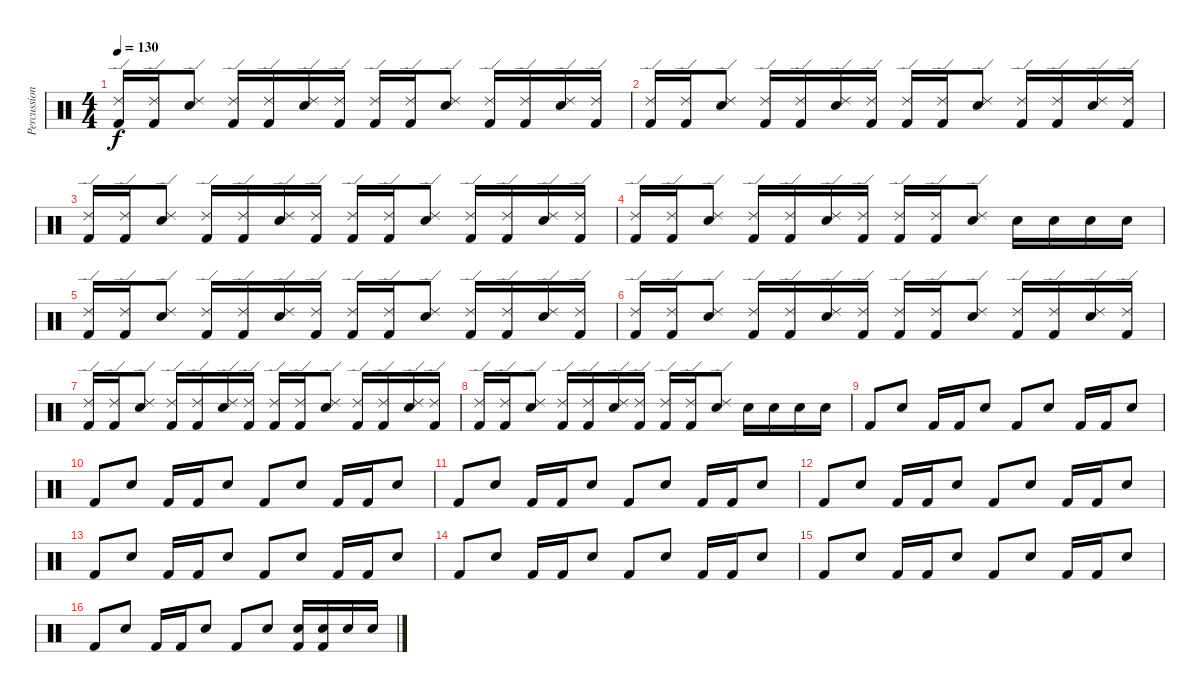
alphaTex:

\track ("Percussion" "Percussion") {instrument percussion}
\staff {score}
\articulation defaults
\ts (4 4)
\tempo 130
\clef neutral
\ks c
("Kick (hit) 2" "Ride (edge) 2").16{dy f} ("Kick (hit) 2" "Ride (edge) 2").16 ("Snare (hit) 2" "Ride (edge) 2").8 ("Kick (hit) 2" "Ride (edge) 2").16 ("Kick (hit) 2" "Ride (edge) 2").16 ("Snare (hit) 2" "Ride (edge) 2").16 ("Kick (hit) 2" "Ride (edge) 2").16 ("Kick (hit) 2" "Ride (edge) 2").16 ("Kick (hit) 2" "Ride (edge) 2").16 ("Snare (hit) 2" "Ride (edge) 2").8 ("Kick (hit) 2" "Ride (edge) 2").16 ("Kick (hit) 2" "Ride (edge) 2").16 ("Snare (hit) 2" "Ride (edge) 2").16 ("Kick (hit) 2" "Ride (edge) 2").16 |
("Kick (hit) 2" "Ride (edge) 2").16 ("Kick (hit) 2" "Ride (edge) 2").16 ("Snare (hit) 2" "Ride (edge) 2").8 ("Kick (hit) 2" "Ride (edge) 2").16 ("Kick (hit) 2" "Ride (edge) 2").16 ("Snare (hit) 2" "Ride (edge) 2").16 ("Kick (hit) 2" "Ride (edge) 2").16 ("Kick (hit) 2" "Ride (edge) 2").16 ("Kick (hit) 2" "Ride (edge) 2").16 ("Snare (hit) 2" "Ride (edge) 2").8 ("Kick (hit) 2" "Ride (edge) 2").16 ("Kick (hit) 2" "Ride (edge) 2").16 ("Snare (hit) 2" "Ride (edge) 2").16 ("Kick (hit) 2" "Ride (edge) 2").16 |
("Kick (hit) 2" "Ride (edge) 2").16 ("Kick (hit) 2" "Ride (edge) 2").16 ("Snare (hit) 2" "Ride (edge) 2").8 ("Kick (hit) 2" "Ride (edge) 2").16 ("Kick (hit) 2" "Ride (edge) 2").16 ("Snare (hit) 2" "Ride (edge) 2").16 ("Kick (hit) 2" "Ride (edge) 2").16 ("Kick (hit) 2" "Ride (edge) 2").16 ("Kick (hit) 2" "Ride (edge) 2").16 ("Snare (hit) 2" "Ride (edge) 2").8 ("Kick (hit) 2" "Ride (edge) 2").16 ("Kick (hit) 2" "Ride (edge) 2").16 ("Snare (hit) 2" "Ride (edge) 2").16 ("Kick (hit) 2" "Ride (edge) 2").16 |
("Kick (hit) 2" "Ride (edge) 2").16 ("Kick (hit) 2" "Ride (edge) 2").16 ("Snare (hit) 2" "Ride (edge) 2").8 ("Kick (hit) 2" "Ride (edge) 2").16 ("Kick (hit) 2" "Ride (edge) 2").16 ("Snare (hit) 2" "Ride (edge) 2").16 ("Kick (hit) 2" "Ride (edge) 2").16 ("Kick (hit) 2" "Ride (edge) 2").16 ("Kick (hit) 2" "Ride (edge) 2").16 ("Snare (hit) 2" "Ride (edge) 2").8 "Snare (hit) 2".16 "Snare (hit) 2".16 "Snare (hit) 2".16 "Snare (hit) 2".16 |
("Kick (hit) 2" "Ride (edge) 2").16 ("Kick (hit) 2" "Ride (edge) 2").16 ("Snare (hit) 2" "Ride (edge) 2").8 ("Kick (hit) 2" "Ride (edge) 2").16 ("Kick (hit) 2" "Ride (edge) 2").16 ("Snare (hit) 2" "Ride (edge) 2").16 ("Kick (hit) 2" "Ride (edge) 2").16 ("Kick (hit) 2" "Ride (edge) 2").16 ("Kick (hit) 2" "Ride (edge) 2").16 ("Snare (hit) 2" "Ride (edge) 2").8 ("Kick (hit) 2" "Ride (edge) 2").16 ("Kick (hit) 2" "Ride (edge) 2").16 ("Snare (hit) 2" "Ride (edge) 2").16 ("Kick (hit) 2" "Ride (edge) 2").16 |
("Kick (hit) 2" "Ride (edge) 2").16 ("Kick (hit) 2" "Ride (edge) 2").16 ("Snare (hit) 2" "Ride (edge) 2").8 ("Kick (hit) 2" "Ride (edge) 2").16 ("Kick (hit) 2" "Ride (edge) 2").16 ("Snare (hit) 2" "Ride (edge) 2").16 ("Kick (hit) 2" "Ride (edge) 2").16 ("Kick (hit) 2" "Ride (edge) 2").16 ("Kick (hit) 2" "Ride (edge) 2").16 ("Snare (hit) 2" "Ride (edge) 2").8 ("Kick (hit) 2" "Ride (edge) 2").16 ("Kick (hit) 2" "Ride (edge) 2").16 ("Snare (hit) 2" "Ride (edge) 2").16 ("Kick (hit) 2" "Ride (edge) 2").16 |
("Kick (hit) 2" "Ride (edge) 2").16 ("Kick (hit) 2" "Ride (edge) 2").16 ("Snare (hit) 2" "Ride (edge) 2").8 ("Kick (hit) 2" "Ride (edge) 2").16 ("Kick (hit) 2" "Ride (edge) 2").16 ("Snare (hit) 2" "Ride (edge) 2").16 ("Kick (hit) 2" "Ride (edge) 2").16 ("Kick (hit) 2" "Ride (edge) 2").16 ("Kick (hit) 2" "Ride (edge) 2").16 ("Snare (hit) 2" "Ride (edge) 2").8 ("Kick (hit) 2" "Ride (edge) 2").16 ("Kick (hit) 2" "Ride (edge) 2").16 ("Snare (hit) 2" "Ride (edge) 2").16 ("Kick (hit) 2" "Ride (edge) 2").16 |
("Kick (hit) 2" "Ride (edge) 2").16 ("Kick (hit) 2" "Ride (edge) 2").16 ("Snare (hit) 2" "Ride (edge) 2").8 ("Kick (hit) 2" "Ride (edge) 2").16 ("Kick (hit) 2" "Ride (edge) 2").16 ("Snare (hit) 2" "Ride (edge) 2").16 ("Kick (hit) 2" "Ride (edge) 2").16 ("Kick (hit) 2" "Ride (edge) 2").16 ("Kick (hit) 2" "Ride (edge) 2").16 ("Snare (hit) 2" "Ride (edge) 2").8 "Snare (hit) 2".16 "Snare (hit) 2".16 "Snare (hit) 2".16 "Snare (hit) 2".16 |
"Kick (hit) 2".8 "Snare (hit) 2".8 "Kick (hit) 2".16 "Kick (hit) 2".16 "Snare (hit) 2".8 "Kick (hit) 2".8 "Snare (hit) 2".8 "Kick (hit) 2".16 "Kick (hit) 2".16 "Snare (hit) 2".8 |
"Kick (hit) 2".8 "Snare (hit) 2".8 "Kick (hit) 2".16 "Kick (hit) 2".16 "Snare (hit) 2".8 "Kick (hit) 2".8 "Snare (hit) 2".8 "Kick (hit) 2".16 "Kick (hit) 2".16 "Snare (hit) 2".8 |
"Kick (hit) 2".8 "Snare (hit) 2".8 "Kick (hit) 2".16 "Kick (hit) 2".16 "Snare (hit) 2".8 "Kick (hit) 2".8 "Snare (hit) 2".8 "Kick (hit) 2".16 "Kick (hit) 2".16 "Snare (hit) 2".8 |
"Kick (hit) 2".8 "Snare (hit) 2".8 "Kick (hit) 2".16 "Kick (hit) 2".16 "Snare (hit) 2".8 "Kick (hit) 2".8 "Snare (hit) 2".8 "Kick (hit) 2".16 "Kick (hit) 2".16 "Snare (hit) 2".8 |
"Kick (hit) 2".8 "Snare (hit) 2".8 "Kick (hit) 2".16 "Kick (hit) 2".16 "Snare (hit) 2".8 "Kick (hit) 2".8 "Snare (hit) 2".8 "Kick (hit) 2".16 "Kick (hit) 2".16 "Snare (hit) 2".8 |
"Kick (hit) 2".8 "Snare (hit) 2".8 "Kick (hit) 2".16 "Kick (hit) 2".16 "Snare (hit) 2".8 "Kick (hit) 2".8 "Snare (hit) 2".8 "Kick (hit) 2".16 "Kick (hit) 2".16 "Snare (hit) 2".8 |
"Kick (hit) 2".8 "Snare (hit) 2".8 "Kick (hit) 2".16 "Kick (hit) 2".16 "Snare (hit) 2".8 "Kick (hit) 2".8 "Snare (hit) 2".8 "Kick (hit) 2".16 "Kick (hit) 2".16 "Snare (hit) 2".8 |
"Kick (hit) 2".8 "Snare (hit) 2".8 "Kick (hit) 2".16 "Kick (hit) 2".16 "Snare (hit) 2".8 "Kick (hit) 2".8 "Snare (hit) 2".8 ("Kick (hit) 2" "Snare (hit) 2").16 ("Kick (hit) 2" "Snare (hit) 2").16 "Snare (hit) 2".16 "Snare (hit) 2".16
